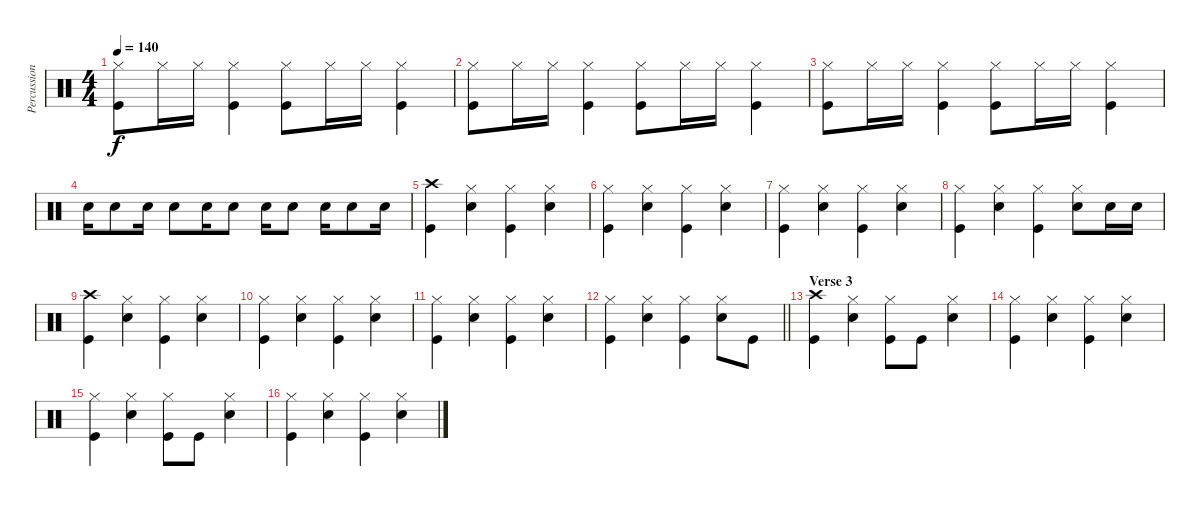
\track ("Percussion" "Percussion") {instrument percussion}
\staff {score}
\articulation defaults
\ts (4 4)
\tempo 140
\clef neutral
\ks c
("Kick (hit)" "Hi-Hat (closed)").8{dy f} "Hi-Hat (closed)".16 "Hi-Hat (closed)".16 ("Hi-Hat (closed)" "Kick (hit)").4 ("Kick (hit)" "Hi-Hat (closed)").8 "Hi-Hat (closed)".16 "Hi-Hat (closed)".16 ("Hi-Hat (closed)" "Kick (hit)").4 |
("Kick (hit)" "Hi-Hat (closed)").8 "Hi-Hat (closed)".16 "Hi-Hat (closed)".16 ("Hi-Hat (closed)" "Kick (hit)").4 ("Kick (hit)" "Hi-Hat (closed)").8 "Hi-Hat (closed)".16 "Hi-Hat (closed)".16 ("Hi-Hat (closed)" "Kick (hit)").4 |
("Kick (hit)" "Hi-Hat (closed)").8 "Hi-Hat (closed)".16 "Hi-Hat (closed)".16 ("Hi-Hat (closed)" "Kick (hit)").4 ("Kick (hit)" "Hi-Hat (closed)").8 "Hi-Hat (closed)".16 "Hi-Hat (closed)".16 ("Hi-Hat (closed)" "Kick (hit)").4 |
"Snare (hit) 2".16 "Snare (hit) 2".8 "Snare (hit) 2".16 "Snare (hit) 2".8 "Snare (hit) 2".16 "Snare (hit) 2".8 "Snare (hit) 2".16 "Snare (hit) 2".8 "Snare (hit) 2".16 "Snare (hit) 2".8 "Snare (hit) 2".16 |
("Kick (hit)" "Crash high (hit)").4 ("Hi-Hat (closed)" "Snare (hit) 2").4 ("Kick (hit)" "Hi-Hat (closed)").4 ("Snare (hit) 2" "Hi-Hat (closed)").4 |
("Kick (hit)" "Hi-Hat (closed)").4 ("Snare (hit) 2" "Hi-Hat (closed)").4 ("Kick (hit)" "Hi-Hat (closed)").4 ("Snare (hit) 2" "Hi-Hat (closed)").4 |
("Kick (hit)" "Hi-Hat (closed)").4 ("Snare (hit) 2" "Hi-Hat (closed)").4 ("Kick (hit)" "Hi-Hat (closed)").4 ("Snare (hit) 2" "Hi-Hat (closed)").4 |
("Kick (hit)" "Hi-Hat (closed)").4 ("Snare (hit) 2" "Hi-Hat (closed)").4 ("Kick (hit)" "Hi-Hat (closed)").4 ("Snare (hit) 2" "Hi-Hat (closed)").8 "Snare (hit) 2".16 "Snare (hit) 2".16 |
("Kick (hit)" "Crash high (hit)").4 ("Hi-Hat (closed)" "Snare (hit) 2").4 ("Kick (hit)" "Hi-Hat (closed)").4 ("Snare (hit) 2" "Hi-Hat (closed)").4 |
("Kick (hit)" "Hi-Hat (closed)").4 ("Snare (hit) 2" "Hi-Hat (closed)").4 ("Kick (hit)" "Hi-Hat (closed)").4 ("Snare (hit) 2" "Hi-Hat (closed)").4 |
("Kick (hit)" "Hi-Hat (closed)").4 ("Snare (hit) 2" "Hi-Hat (closed)").4 ("Kick (hit)" "Hi-Hat (closed)").4 ("Snare (hit) 2" "Hi-Hat (closed)").4 |
\barLineRight lightlight
("Kick (hit)" "Hi-Hat (closed)").4 ("Snare (hit) 2" "Hi-Hat (closed)").4 ("Kick (hit)" "Hi-Hat (closed)").4 ("Snare (hit) 2" "Hi-Hat (closed)").8 "Kick (hit)".8 |
\section ("" "Verse 3")
("Kick (hit)" "Crash high (hit)").4 ("Snare (hit) 2" "Hi-Hat (closed)").4 ("Kick (hit)" "Hi-Hat (closed)").8 "Kick (hit)".8 ("Snare (hit) 2" "Hi-Hat (closed)").4 |
("Kick (hit)" "Hi-Hat (closed)").4 ("Snare (hit) 2" "Hi-Hat (closed)").4 ("Kick (hit)" "Hi-Hat (closed)").4 ("Snare (hit) 2" "Hi-Hat (closed)").4 |
("Kick (hit)" "Hi-Hat (closed)").4 ("Snare (hit) 2" "Hi-Hat (closed)").4 ("Kick (hit)" "Hi-Hat (closed)").8 "Kick (hit)".8 ("Snare (hit) 2" "Hi-Hat (closed)").4 |
("Kick (hit)" "Hi-Hat (closed)").4 ("Snare (hit) 2" "Hi-Hat (closed)").4 ("Kick (hit)" "Hi-Hat (closed)").4 ("Snare (hit) 2" "Hi-Hat (closed)").4
